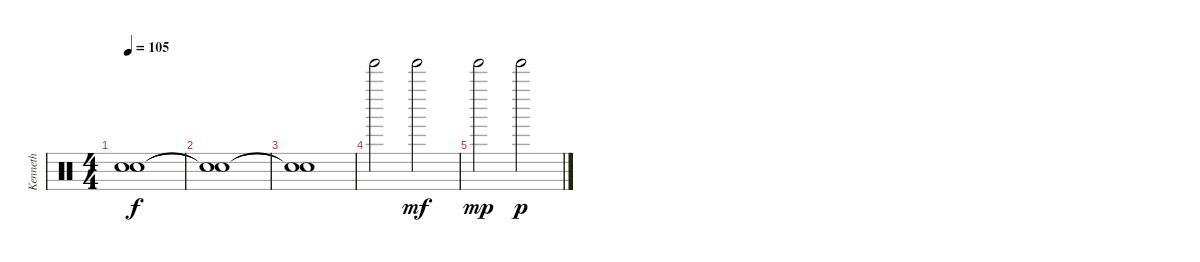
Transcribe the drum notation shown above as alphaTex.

\track ("Kenneth" "Kenneth") {instrument percussion}
\staff {score}
\articulation defaults
\ts (4 4)
\tempo 105
\clef neutral
\ks c
("Snare (hit)"{t} "Snare (hit)"{t}).1{dy f} |
("Snare (hit)"{t} "Snare (hit)"{t}).1 |
("Snare (hit)"{t} "Snare (hit)"{t}).1 |
"Tinkle Bell (hit)".2 "Tinkle Bell (hit)".2{dy mf} |
"Tinkle Bell (hit)".2{dy mp} "Tinkle Bell (hit)".2{dy p}
